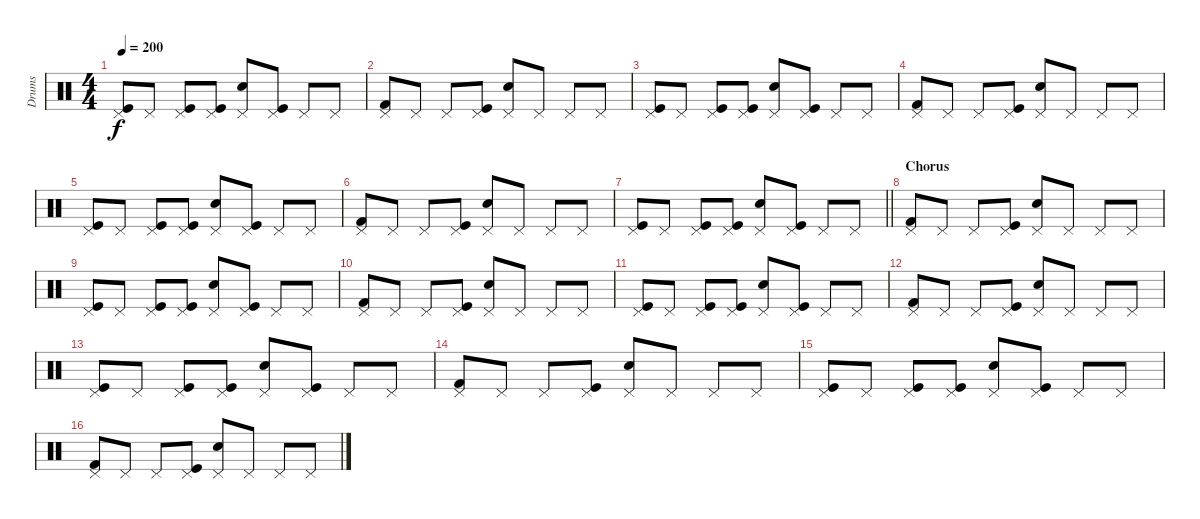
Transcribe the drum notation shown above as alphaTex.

\track ("Drums" "Drums") {instrument percussion}
\staff {score}
\articulation defaults
\ts (4 4)
\tempo 200
\clef neutral
\ks c
("Kick (hit)" "Pedal Hi-Hat (hit)").8{dy f} "Pedal Hi-Hat (hit)".8 ("Kick (hit)" "Pedal Hi-Hat (hit)").8 ("Kick (hit)" "Pedal Hi-Hat (hit)").8 ("Snare (hit) 2" "Pedal Hi-Hat (hit)").8 ("Kick (hit)" "Pedal Hi-Hat (hit)").8 "Pedal Hi-Hat (hit)".8 "Pedal Hi-Hat (hit)".8 |
("Kick (hit) 2" "Pedal Hi-Hat (hit)").8 "Pedal Hi-Hat (hit)".8 "Pedal Hi-Hat (hit)".8 ("Kick (hit)" "Pedal Hi-Hat (hit)").8 ("Snare (hit) 2" "Pedal Hi-Hat (hit)").8 "Pedal Hi-Hat (hit)".8 "Pedal Hi-Hat (hit)".8 "Pedal Hi-Hat (hit)".8 |
("Kick (hit)" "Pedal Hi-Hat (hit)").8 "Pedal Hi-Hat (hit)".8 ("Kick (hit)" "Pedal Hi-Hat (hit)").8 ("Kick (hit)" "Pedal Hi-Hat (hit)").8 ("Snare (hit) 2" "Pedal Hi-Hat (hit)").8 ("Kick (hit)" "Pedal Hi-Hat (hit)").8 "Pedal Hi-Hat (hit)".8 "Pedal Hi-Hat (hit)".8 |
("Kick (hit) 2" "Pedal Hi-Hat (hit)").8 "Pedal Hi-Hat (hit)".8 "Pedal Hi-Hat (hit)".8 ("Kick (hit)" "Pedal Hi-Hat (hit)").8 ("Snare (hit) 2" "Pedal Hi-Hat (hit)").8 "Pedal Hi-Hat (hit)".8 "Pedal Hi-Hat (hit)".8 "Pedal Hi-Hat (hit)".8 |
("Kick (hit)" "Pedal Hi-Hat (hit)").8 "Pedal Hi-Hat (hit)".8 ("Kick (hit)" "Pedal Hi-Hat (hit)").8 ("Kick (hit)" "Pedal Hi-Hat (hit)").8 ("Snare (hit) 2" "Pedal Hi-Hat (hit)").8 ("Kick (hit)" "Pedal Hi-Hat (hit)").8 "Pedal Hi-Hat (hit)".8 "Pedal Hi-Hat (hit)".8 |
("Kick (hit) 2" "Pedal Hi-Hat (hit)").8 "Pedal Hi-Hat (hit)".8 "Pedal Hi-Hat (hit)".8 ("Kick (hit)" "Pedal Hi-Hat (hit)").8 ("Snare (hit) 2" "Pedal Hi-Hat (hit)").8 "Pedal Hi-Hat (hit)".8 "Pedal Hi-Hat (hit)".8 "Pedal Hi-Hat (hit)".8 |
\barLineRight lightlight
("Kick (hit)" "Pedal Hi-Hat (hit)").8 "Pedal Hi-Hat (hit)".8 ("Kick (hit)" "Pedal Hi-Hat (hit)").8 ("Kick (hit)" "Pedal Hi-Hat (hit)").8 ("Snare (hit) 2" "Pedal Hi-Hat (hit)").8 ("Kick (hit)" "Pedal Hi-Hat (hit)").8 "Pedal Hi-Hat (hit)".8 "Pedal Hi-Hat (hit)".8 |
\section ("" "Chorus")
("Kick (hit) 2" "Pedal Hi-Hat (hit)").8 "Pedal Hi-Hat (hit)".8 "Pedal Hi-Hat (hit)".8 ("Kick (hit)" "Pedal Hi-Hat (hit)").8 ("Snare (hit) 2" "Pedal Hi-Hat (hit)").8 "Pedal Hi-Hat (hit)".8 "Pedal Hi-Hat (hit)".8 "Pedal Hi-Hat (hit)".8 |
("Kick (hit)" "Pedal Hi-Hat (hit)").8 "Pedal Hi-Hat (hit)".8 ("Kick (hit)" "Pedal Hi-Hat (hit)").8 ("Kick (hit)" "Pedal Hi-Hat (hit)").8 ("Snare (hit) 2" "Pedal Hi-Hat (hit)").8 ("Kick (hit)" "Pedal Hi-Hat (hit)").8 "Pedal Hi-Hat (hit)".8 "Pedal Hi-Hat (hit)".8 |
("Kick (hit) 2" "Pedal Hi-Hat (hit)").8 "Pedal Hi-Hat (hit)".8 "Pedal Hi-Hat (hit)".8 ("Kick (hit)" "Pedal Hi-Hat (hit)").8 ("Snare (hit) 2" "Pedal Hi-Hat (hit)").8 "Pedal Hi-Hat (hit)".8 "Pedal Hi-Hat (hit)".8 "Pedal Hi-Hat (hit)".8 |
("Kick (hit)" "Pedal Hi-Hat (hit)").8 "Pedal Hi-Hat (hit)".8 ("Kick (hit)" "Pedal Hi-Hat (hit)").8 ("Kick (hit)" "Pedal Hi-Hat (hit)").8 ("Snare (hit) 2" "Pedal Hi-Hat (hit)").8 ("Kick (hit)" "Pedal Hi-Hat (hit)").8 "Pedal Hi-Hat (hit)".8 "Pedal Hi-Hat (hit)".8 |
("Kick (hit) 2" "Pedal Hi-Hat (hit)").8 "Pedal Hi-Hat (hit)".8 "Pedal Hi-Hat (hit)".8 ("Kick (hit)" "Pedal Hi-Hat (hit)").8 ("Snare (hit) 2" "Pedal Hi-Hat (hit)").8 "Pedal Hi-Hat (hit)".8 "Pedal Hi-Hat (hit)".8 "Pedal Hi-Hat (hit)".8 |
("Kick (hit)" "Pedal Hi-Hat (hit)").8 "Pedal Hi-Hat (hit)".8 ("Kick (hit)" "Pedal Hi-Hat (hit)").8 ("Kick (hit)" "Pedal Hi-Hat (hit)").8 ("Snare (hit) 2" "Pedal Hi-Hat (hit)").8 ("Kick (hit)" "Pedal Hi-Hat (hit)").8 "Pedal Hi-Hat (hit)".8 "Pedal Hi-Hat (hit)".8 |
("Kick (hit) 2" "Pedal Hi-Hat (hit)").8 "Pedal Hi-Hat (hit)".8 "Pedal Hi-Hat (hit)".8 ("Kick (hit)" "Pedal Hi-Hat (hit)").8 ("Snare (hit) 2" "Pedal Hi-Hat (hit)").8 "Pedal Hi-Hat (hit)".8 "Pedal Hi-Hat (hit)".8 "Pedal Hi-Hat (hit)".8 |
("Kick (hit)" "Pedal Hi-Hat (hit)").8 "Pedal Hi-Hat (hit)".8 ("Kick (hit)" "Pedal Hi-Hat (hit)").8 ("Kick (hit)" "Pedal Hi-Hat (hit)").8 ("Snare (hit) 2" "Pedal Hi-Hat (hit)").8 ("Kick (hit)" "Pedal Hi-Hat (hit)").8 "Pedal Hi-Hat (hit)".8 "Pedal Hi-Hat (hit)".8 |
("Kick (hit) 2" "Pedal Hi-Hat (hit)").8 "Pedal Hi-Hat (hit)".8 "Pedal Hi-Hat (hit)".8 ("Kick (hit)" "Pedal Hi-Hat (hit)").8 ("Snare (hit) 2" "Pedal Hi-Hat (hit)").8 "Pedal Hi-Hat (hit)".8 "Pedal Hi-Hat (hit)".8 "Pedal Hi-Hat (hit)".8
